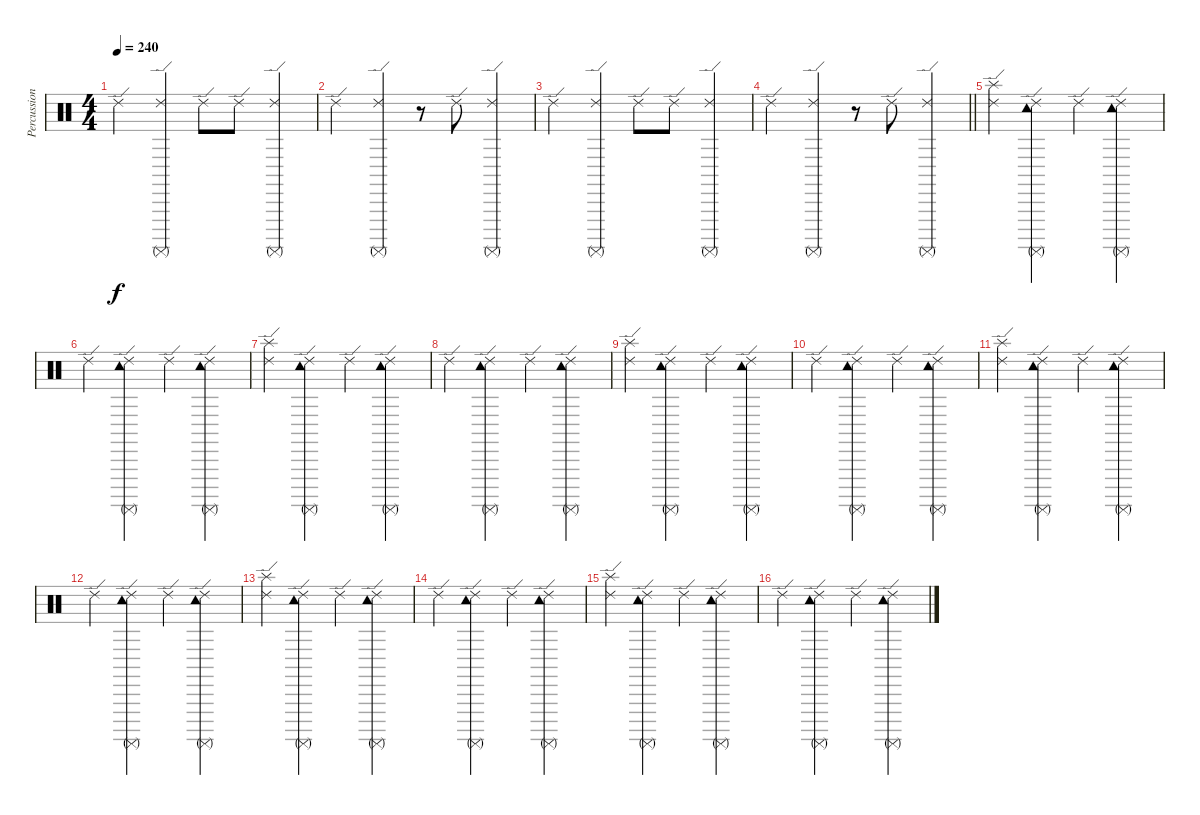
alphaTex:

\track ("Percussions" "Percussion") {instrument percussion}
\staff {score}
\articulation defaults
\ts (4 4)
\tempo 240
\clef neutral
\ks c "Ride (edge) 2".4{dy f}
("Ride (edge) 2" "Surdo (mute)").4 "Ride (edge) 2".8 "Ride (edge) 2".8 ("Ride (edge) 2" "Surdo (mute)").4 |
"Ride (edge) 2".4 ("Ride (edge) 2" "Surdo (mute)").4 r.8 "Ride (edge) 2".8 ("Ride (edge) 2" "Surdo (mute)").4 |
"Ride (edge) 2".4 ("Ride (edge) 2" "Surdo (mute)").4 "Ride (edge) 2".8 "Ride (edge) 2".8 ("Ride (edge) 2" "Surdo (mute)").4 |
\barLineRight lightlight "Ride (edge) 2".4
("Ride (edge) 2" "Surdo (mute)").4 r.8 "Ride (edge) 2".8 ("Ride (edge) 2" "Surdo (mute)").4 |
\section ("" "")
("Splash (hit)" "Ride (edge) 2").4 ("Tambourine (hit)" "Ride (edge) 2" "Surdo (mute)").4 "Ride (edge) 2".4 ("Tambourine (hit)" "Ride (edge) 2" "Surdo (mute)").4 |
"Ride (edge) 2".4 ("Tambourine (hit)" "Ride (edge) 2" "Surdo (mute)").4 "Ride (edge) 2".4 ("Tambourine (hit)" "Ride (edge) 2" "Surdo (mute)").4 |
("Splash (hit)" "Ride (edge) 2").4 ("Tambourine (hit)" "Ride (edge) 2" "Surdo (mute)").4 "Ride (edge) 2".4 ("Tambourine (hit)" "Ride (edge) 2" "Surdo (mute)").4 |
"Ride (edge) 2".4 ("Tambourine (hit)" "Ride (edge) 2" "Surdo (mute)").4 "Ride (edge) 2".4 ("Tambourine (hit)" "Ride (edge) 2" "Surdo (mute)").4 |
("Splash (hit)" "Ride (edge) 2").4 ("Tambourine (hit)" "Ride (edge) 2" "Surdo (mute)").4 "Ride (edge) 2".4 ("Tambourine (hit)" "Ride (edge) 2" "Surdo (mute)").4 |
"Ride (edge) 2".4 ("Tambourine (hit)" "Ride (edge) 2" "Surdo (mute)").4 "Ride (edge) 2".4 ("Tambourine (hit)" "Ride (edge) 2" "Surdo (mute)").4 |
("Splash (hit)" "Ride (edge) 2").4 ("Tambourine (hit)" "Ride (edge) 2" "Surdo (mute)").4 "Ride (edge) 2".4 ("Tambourine (hit)" "Ride (edge) 2" "Surdo (mute)").4 |
"Ride (edge) 2".4 ("Tambourine (hit)" "Ride (edge) 2" "Surdo (mute)").4 "Ride (edge) 2".4 ("Tambourine (hit)" "Ride (edge) 2" "Surdo (mute)").4 |
("Splash (hit)" "Ride (edge) 2").4 ("Tambourine (hit)" "Ride (edge) 2" "Surdo (mute)").4 "Ride (edge) 2".4 ("Tambourine (hit)" "Ride (edge) 2" "Surdo (mute)").4 |
"Ride (edge) 2".4 ("Tambourine (hit)" "Ride (edge) 2" "Surdo (mute)").4 "Ride (edge) 2".4 ("Tambourine (hit)" "Ride (edge) 2" "Surdo (mute)").4 |
("Splash (hit)" "Ride (edge) 2").4 ("Tambourine (hit)" "Ride (edge) 2" "Surdo (mute)").4 "Ride (edge) 2".4 ("Tambourine (hit)" "Ride (edge) 2" "Surdo (mute)").4 |
"Ride (edge) 2".4 ("Tambourine (hit)" "Ride (edge) 2" "Surdo (mute)").4 "Ride (edge) 2".4 ("Tambourine (hit)" "Ride (edge) 2" "Surdo (mute)").4
